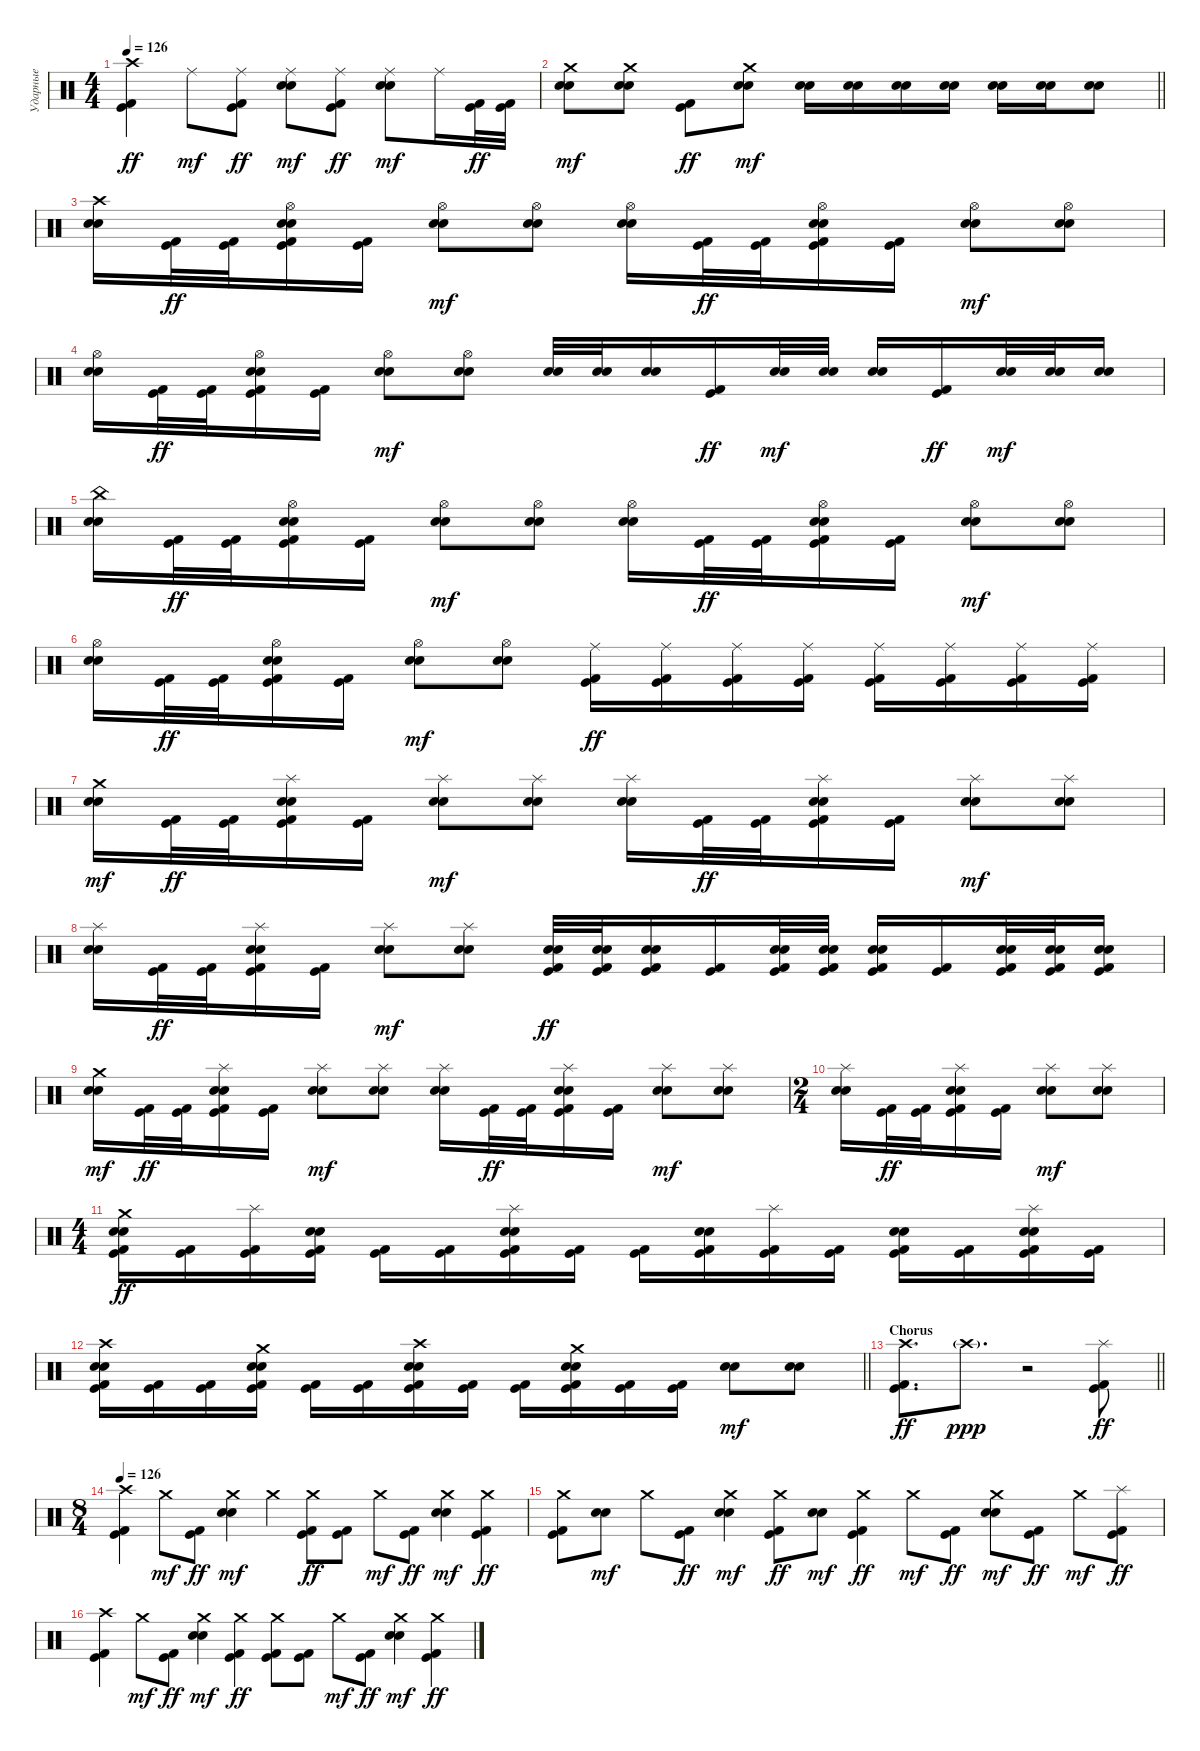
\track ("Ударные" "Ударные") {instrument percussion}
\staff {score}
\articulation defaults
\ts (4 4)
\tempo 126
\clef neutral
\ks c
("Crash high (hit)" "Kick (hit)" "Kick (hit) 2").4{dy ff} "Ride (middle)".8{dy mf} ("Ride (middle)" "Kick (hit)" "Kick (hit) 2").8{dy ff} ("Ride (middle)" "Snare (hit) 2" "Electric Snare (hit)").8{dy mf} ("Ride (middle)" "Kick (hit)" "Kick (hit) 2").8{dy ff} ("Ride (middle)" "Snare (hit) 2" "Electric Snare (hit)").8{dy mf} "Ride (middle)".16 ("Kick (hit)" "Kick (hit) 2").32{dy ff} ("Kick (hit)" "Kick (hit) 2").32 |
\barLineRight lightlight
("Crash medium (hit)" "Snare (hit) 2" "Electric Snare (hit)").8{dy mf} ("Crash medium (hit)" "Snare (hit) 2" "Electric Snare (hit)").8 ("Kick (hit)" "Kick (hit) 2").8{dy ff} ("Crash medium (hit)" "Snare (hit) 2" "Electric Snare (hit)").8{dy mf} ("Snare (hit) 2" "Electric Snare (hit)").16 ("Snare (hit) 2" "Electric Snare (hit)").16 ("Snare (hit) 2" "Electric Snare (hit)").16 ("Snare (hit) 2" "Electric Snare (hit)").16 ("Snare (hit) 2" "Electric Snare (hit)").16 ("Snare (hit) 2" "Electric Snare (hit)").16 ("Snare (hit) 2" "Electric Snare (hit)").8 |
("Crash high (hit)" "Snare (hit) 2" "Electric Snare (hit)").16{volume 16} ("Kick (hit) 2" "Kick (hit)").32{dy ff} ("Kick (hit) 2" "Kick (hit)").32 ("Hi-Hat (open)" "Snare (hit) 2" "Electric Snare (hit)" "Kick (hit) 2" "Kick (hit)").16 ("Kick (hit) 2" "Kick (hit)").16 ("Hi-Hat (open)" "Snare (hit) 2" "Electric Snare (hit)").8{dy mf} ("Hi-Hat (open)" "Snare (hit) 2" "Electric Snare (hit)").8 ("Hi-Hat (open)" "Snare (hit) 2" "Electric Snare (hit)").16 ("Kick (hit) 2" "Kick (hit)").32{dy ff} ("Kick (hit) 2" "Kick (hit)").32 ("Hi-Hat (open)" "Snare (hit) 2" "Electric Snare (hit)" "Kick (hit) 2" "Kick (hit)").16 ("Kick (hit) 2" "Kick (hit)").16 ("Hi-Hat (open)" "Snare (hit) 2" "Electric Snare (hit)").8{dy mf} ("Hi-Hat (open)" "Snare (hit) 2" "Electric Snare (hit)").8 |
("Hi-Hat (open)" "Snare (hit) 2" "Electric Snare (hit)").16 ("Kick (hit) 2" "Kick (hit)").32{dy ff} ("Kick (hit) 2" "Kick (hit)").32 ("Hi-Hat (open)" "Snare (hit) 2" "Electric Snare (hit)" "Kick (hit) 2" "Kick (hit)").16 ("Kick (hit) 2" "Kick (hit)").16 ("Hi-Hat (open)" "Snare (hit) 2" "Electric Snare (hit)").8{dy mf} ("Hi-Hat (open)" "Snare (hit) 2" "Electric Snare (hit)").8 ("Snare (hit) 2" "Electric Snare (hit)").32 ("Snare (hit) 2" "Electric Snare (hit)").32 ("Snare (hit) 2" "Electric Snare (hit)").16 ("Kick (hit) 2" "Kick (hit)").16{dy ff} ("Snare (hit) 2" "Electric Snare (hit)").32{dy mf} ("Snare (hit) 2" "Electric Snare (hit)").32 ("Snare (hit) 2" "Electric Snare (hit)").16 ("Kick (hit) 2" "Kick (hit)").16{dy ff} ("Snare (hit) 2" "Electric Snare (hit)").32{dy mf} ("Snare (hit) 2" "Electric Snare (hit)").32 ("Snare (hit) 2" "Electric Snare (hit)").16 |
("China (hit)" "Snare (hit) 2" "Electric Snare (hit)").16 ("Kick (hit) 2" "Kick (hit)").32{dy ff} ("Kick (hit) 2" "Kick (hit)").32 ("Hi-Hat (open)" "Snare (hit) 2" "Electric Snare (hit)" "Kick (hit) 2" "Kick (hit)").16 ("Kick (hit) 2" "Kick (hit)").16 ("Hi-Hat (open)" "Snare (hit) 2" "Electric Snare (hit)").8{dy mf} ("Hi-Hat (open)" "Snare (hit) 2" "Electric Snare (hit)").8 ("Hi-Hat (open)" "Snare (hit) 2" "Electric Snare (hit)").16 ("Kick (hit) 2" "Kick (hit)").32{dy ff} ("Kick (hit) 2" "Kick (hit)").32 ("Hi-Hat (open)" "Snare (hit) 2" "Electric Snare (hit)" "Kick (hit) 2" "Kick (hit)").16 ("Kick (hit) 2" "Kick (hit)").16 ("Hi-Hat (open)" "Snare (hit) 2" "Electric Snare (hit)").8{dy mf} ("Hi-Hat (open)" "Snare (hit) 2" "Electric Snare (hit)").8 |
("Hi-Hat (open)" "Snare (hit) 2" "Electric Snare (hit)").16 ("Kick (hit) 2" "Kick (hit)").32{dy ff} ("Kick (hit) 2" "Kick (hit)").32 ("Hi-Hat (open)" "Snare (hit) 2" "Electric Snare (hit)" "Kick (hit) 2" "Kick (hit)").16 ("Kick (hit) 2" "Kick (hit)").16 ("Hi-Hat (open)" "Snare (hit) 2" "Electric Snare (hit)").8{dy mf} ("Hi-Hat (open)" "Snare (hit) 2" "Electric Snare (hit)").8 ("Ride (middle)" "Kick (hit) 2" "Kick (hit)").16{dy ff} ("Ride (middle)" "Kick (hit) 2" "Kick (hit)").16 ("Ride (middle)" "Kick (hit) 2" "Kick (hit)").16 ("Ride (middle)" "Kick (hit) 2" "Kick (hit)").16 ("Ride (middle)" "Kick (hit) 2" "Kick (hit)").16 ("Ride (middle)" "Kick (hit) 2" "Kick (hit)").16 ("Ride (middle)" "Kick (hit) 2" "Kick (hit)").16 ("Ride (middle)" "Kick (hit) 2" "Kick (hit)").16 |
("Crash medium (hit)" "Snare (hit) 2" "Electric Snare (hit)").16{dy mf} ("Kick (hit) 2" "Kick (hit)").32{dy ff} ("Kick (hit) 2" "Kick (hit)").32 ("Splash (hit)" "Snare (hit) 2" "Electric Snare (hit)" "Kick (hit) 2" "Kick (hit)").16 ("Kick (hit) 2" "Kick (hit)").16 ("Splash (hit)" "Snare (hit) 2" "Electric Snare (hit)").8{dy mf} ("Splash (hit)" "Snare (hit) 2" "Electric Snare (hit)").8 ("Splash (hit)" "Snare (hit) 2" "Electric Snare (hit)").16 ("Kick (hit) 2" "Kick (hit)").32{dy ff} ("Kick (hit) 2" "Kick (hit)").32 ("Splash (hit)" "Snare (hit) 2" "Electric Snare (hit)" "Kick (hit) 2" "Kick (hit)").16 ("Kick (hit) 2" "Kick (hit)").16 ("Splash (hit)" "Snare (hit) 2" "Electric Snare (hit)").8{dy mf} ("Splash (hit)" "Snare (hit) 2" "Electric Snare (hit)").8 |
("Splash (hit)" "Snare (hit) 2" "Electric Snare (hit)").16 ("Kick (hit) 2" "Kick (hit)").32{dy ff} ("Kick (hit) 2" "Kick (hit)").32 ("Splash (hit)" "Snare (hit) 2" "Electric Snare (hit)" "Kick (hit) 2" "Kick (hit)").16 ("Kick (hit) 2" "Kick (hit)").16 ("Splash (hit)" "Snare (hit) 2" "Electric Snare (hit)").8{dy mf} ("Splash (hit)" "Snare (hit) 2" "Electric Snare (hit)").8 ("Snare (hit) 2" "Electric Snare (hit)" "Kick (hit) 2" "Kick (hit)").32{dy ff} ("Snare (hit) 2" "Electric Snare (hit)" "Kick (hit) 2" "Kick (hit)").32 ("Snare (hit) 2" "Electric Snare (hit)" "Kick (hit) 2" "Kick (hit)").16 ("Kick (hit) 2" "Kick (hit)").16 ("Snare (hit) 2" "Electric Snare (hit)" "Kick (hit) 2" "Kick (hit)").32 ("Snare (hit) 2" "Electric Snare (hit)" "Kick (hit) 2" "Kick (hit)").32 ("Snare (hit) 2" "Electric Snare (hit)" "Kick (hit) 2" "Kick (hit)").16 ("Kick (hit) 2" "Kick (hit)").16 ("Snare (hit) 2" "Electric Snare (hit)" "Kick (hit) 2" "Kick (hit)").32 ("Snare (hit) 2" "Electric Snare (hit)" "Kick (hit) 2" "Kick (hit)").32 ("Snare (hit) 2" "Electric Snare (hit)" "Kick (hit) 2" "Kick (hit)").16 |
("Crash medium (hit)" "Snare (hit) 2" "Electric Snare (hit)").16{dy mf} ("Kick (hit) 2" "Kick (hit)").32{dy ff} ("Kick (hit) 2" "Kick (hit)").32 ("Splash (hit)" "Snare (hit) 2" "Electric Snare (hit)" "Kick (hit) 2" "Kick (hit)").16 ("Kick (hit) 2" "Kick (hit)").16 ("Splash (hit)" "Snare (hit) 2" "Electric Snare (hit)").8{dy mf} ("Splash (hit)" "Snare (hit) 2" "Electric Snare (hit)").8 ("Splash (hit)" "Snare (hit) 2" "Electric Snare (hit)").16 ("Kick (hit) 2" "Kick (hit)").32{dy ff} ("Kick (hit) 2" "Kick (hit)").32 ("Splash (hit)" "Snare (hit) 2" "Electric Snare (hit)" "Kick (hit) 2" "Kick (hit)").16 ("Kick (hit) 2" "Kick (hit)").16 ("Splash (hit)" "Snare (hit) 2" "Electric Snare (hit)").8{dy mf} ("Splash (hit)" "Snare (hit) 2" "Electric Snare (hit)").8 |
\ts (2 4)
("Splash (hit)" "Snare (hit) 2" "Electric Snare (hit)").16 ("Kick (hit) 2" "Kick (hit)").32{dy ff} ("Kick (hit) 2" "Kick (hit)").32 ("Splash (hit)" "Snare (hit) 2" "Electric Snare (hit)" "Kick (hit) 2" "Kick (hit)").16 ("Kick (hit) 2" "Kick (hit)").16 ("Splash (hit)" "Snare (hit) 2" "Electric Snare (hit)").8{dy mf} ("Splash (hit)" "Snare (hit) 2" "Electric Snare (hit)").8 |
\ts (4 4)
("Crash medium (hit)" "Snare (hit) 2" "Electric Snare (hit)" "Kick (hit) 2" "Kick (hit)").16{dy ff} ("Kick (hit) 2" "Kick (hit)").16 ("Splash (hit)" "Kick (hit) 2" "Kick (hit)").16 ("Snare (hit) 2" "Electric Snare (hit)" "Kick (hit) 2" "Kick (hit)").16 ("Kick (hit) 2" "Kick (hit)").16 ("Kick (hit) 2" "Kick (hit)").16 ("Splash (hit)" "Snare (hit) 2" "Electric Snare (hit)" "Kick (hit) 2" "Kick (hit)").16 ("Kick (hit) 2" "Kick (hit)").16 ("Kick (hit) 2" "Kick (hit)").16 ("Snare (hit) 2" "Electric Snare (hit)" "Kick (hit) 2" "Kick (hit)").16 ("Splash (hit)" "Kick (hit) 2" "Kick (hit)").16 ("Kick (hit) 2" "Kick (hit)").16 ("Snare (hit) 2" "Electric Snare (hit)" "Kick (hit) 2" "Kick (hit)").16 ("Kick (hit) 2" "Kick (hit)").16 ("Splash (hit)" "Snare (hit) 2" "Electric Snare (hit)" "Kick (hit) 2" "Kick (hit)").16 ("Kick (hit) 2" "Kick (hit)").16 |
\barLineRight lightlight
("Crash high (hit)" "Snare (hit) 2" "Electric Snare (hit)" "Kick (hit) 2" "Kick (hit)").16 ("Kick (hit) 2" "Kick (hit)").16 ("Kick (hit) 2" "Kick (hit)").16 ("Crash medium (hit)" "Snare (hit) 2" "Electric Snare (hit)" "Kick (hit) 2" "Kick (hit)").16 ("Kick (hit) 2" "Kick (hit)").16 ("Kick (hit) 2" "Kick (hit)").16 ("Crash high (hit)" "Snare (hit) 2" "Electric Snare (hit)" "Kick (hit) 2" "Kick (hit)").16 ("Kick (hit) 2" "Kick (hit)").16 ("Kick (hit) 2" "Kick (hit)").16 ("Crash medium (hit)" "Snare (hit) 2" "Electric Snare (hit)" "Kick (hit) 2" "Kick (hit)").16 ("Kick (hit) 2" "Kick (hit)").16 ("Kick (hit) 2" "Kick (hit)").16 ("Snare (hit) 2" "Electric Snare (hit)").8{dy mf} ("Snare (hit) 2" "Electric Snare (hit)").8 |
\section ("" "Chorus")
\barLineRight lightlight
("Crash high (hit)" "Kick (hit) 2" "Kick (hit)").8{d dy ff} "Crash high (hit)"{g}.8{d dy ppp} r.2 ("Splash (hit)" "Kick (hit) 2" "Kick (hit)").8{dy ff} |
\ts (8 4)
\tempo 126
("Crash high (hit)" "Kick (hit) 2" "Kick (hit)").4 "Crash medium (hit)".8{dy mf} ("Kick (hit) 2" "Kick (hit)").8{dy ff} ("Crash medium (hit)" "Snare (hit) 2" "Electric Snare (hit)").4{dy mf} "Crash medium (hit)".4 ("Crash medium (hit)" "Kick (hit) 2" "Kick (hit)").8{dy ff} ("Kick (hit) 2" "Kick (hit)").8 "Crash medium (hit)".8{dy mf} ("Kick (hit) 2" "Kick (hit)").8{dy ff} ("Crash medium (hit)" "Snare (hit) 2" "Electric Snare (hit)").4{dy mf} ("Crash medium (hit)" "Kick (hit) 2" "Kick (hit)").4{dy ff} |
("Crash medium (hit)" "Kick (hit) 2" "Kick (hit)").8 ("Snare (hit) 2" "Electric Snare (hit)").8{dy mf} "Crash medium (hit)".8 ("Kick (hit) 2" "Kick (hit)").8{dy ff} ("Crash medium (hit)" "Snare (hit) 2" "Electric Snare (hit)").4{dy mf} ("Crash medium (hit)" "Kick (hit) 2" "Kick (hit)").8{dy ff} ("Snare (hit) 2" "Electric Snare (hit)").8{dy mf} ("Crash medium (hit)" "Kick (hit) 2" "Kick (hit)").4{dy ff} "Crash medium (hit)".8{dy mf} ("Kick (hit) 2" "Kick (hit)").8{dy ff} ("Crash medium (hit)" "Snare (hit) 2" "Electric Snare (hit)").8{dy mf} ("Kick (hit) 2" "Kick (hit)").8{dy ff} "Crash medium (hit)".8{dy mf} ("Splash (hit)" "Kick (hit) 2" "Kick (hit)").8{dy ff} |
("Crash high (hit)" "Kick (hit) 2" "Kick (hit)").4 "Crash medium (hit)".8{dy mf} ("Kick (hit) 2" "Kick (hit)").8{dy ff} ("Crash medium (hit)" "Snare (hit) 2" "Electric Snare (hit)").4{dy mf} ("Crash medium (hit)" "Kick (hit) 2" "Kick (hit)").4{dy ff} ("Crash medium (hit)" "Kick (hit) 2" "Kick (hit)").8 ("Kick (hit) 2" "Kick (hit)").8 "Crash medium (hit)".8{dy mf} ("Kick (hit) 2" "Kick (hit)").8{dy ff} ("Crash medium (hit)" "Snare (hit) 2" "Electric Snare (hit)").4{dy mf} ("Crash medium (hit)" "Kick (hit) 2" "Kick (hit)").4{dy ff}
